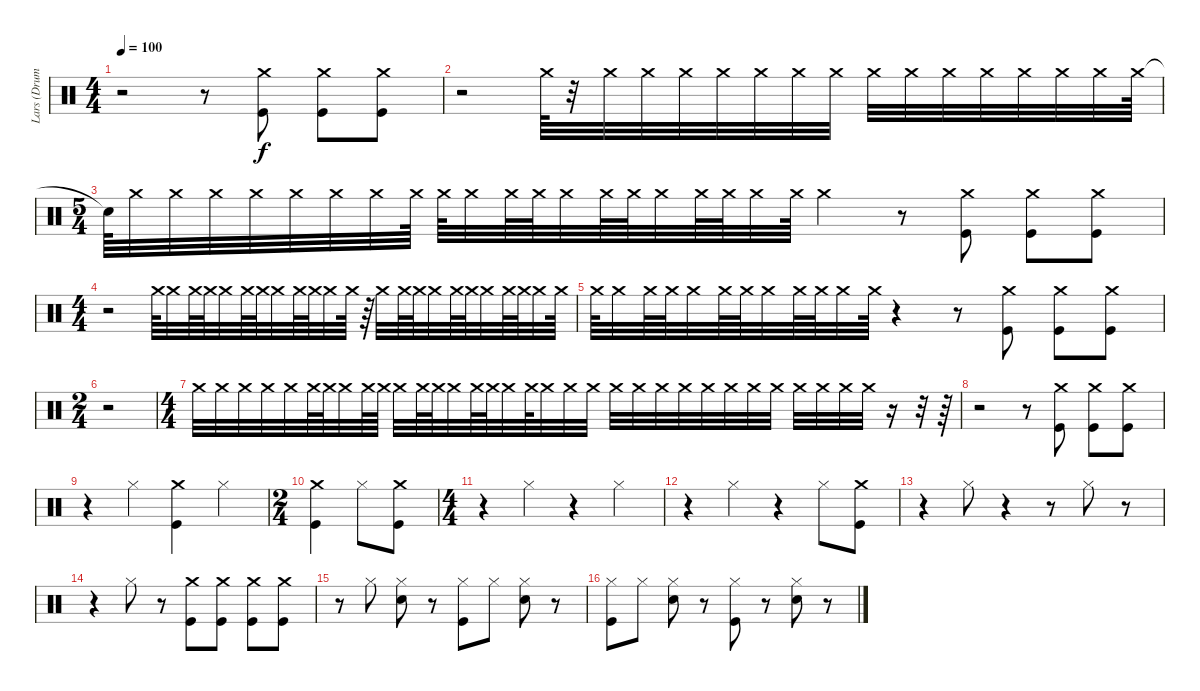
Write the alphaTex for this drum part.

\track ("Lars (Drums)" "Lars (Drum") {instrument percussion}
\staff {score}
\articulation defaults
\ts (4 4)
\tempo 100
\clef neutral
\ks c
r.2{dy f} r.8 ("Crash medium (hit)" "Kick (hit)").8 ("Crash medium (hit)" "Kick (hit)").8 ("Crash medium (hit)" "Kick (hit)").8 |
r.2 "Crash medium (hit)".64 r.32 "Crash medium (hit)".32 "Crash medium (hit)".32 "Crash medium (hit)".32 "Crash medium (hit)".32 "Crash medium (hit)".32 "Crash medium (hit)".32 "Crash medium (hit)".32 "Crash medium (hit)".32 "Crash medium (hit)".32 "Crash medium (hit)".32 "Crash medium (hit)".32 "Crash medium (hit)".32 "Crash medium (hit)".32 "Crash medium (hit)".32 "Crash medium (hit)".64 |
\ts (5 4)
"Snare (hit)"{t}.64 "Crash medium (hit)".32 "Crash medium (hit)".32 "Crash medium (hit)".32 "Crash medium (hit)".32 "Crash medium (hit)".32 "Crash medium (hit)".32 "Crash medium (hit)".32 "Crash medium (hit)".64 "Crash medium (hit)".64 "Crash medium (hit)".32 "Crash medium (hit)".64 "Crash medium (hit)".64 "Crash medium (hit)".32 "Crash medium (hit)".64 "Crash medium (hit)".64 "Crash medium (hit)".32 "Crash medium (hit)".64 "Crash medium (hit)".64 "Crash medium (hit)".32 "Crash medium (hit)".64 "Crash medium (hit)".4 r.8 ("Crash medium (hit)" "Kick (hit)").8 ("Crash medium (hit)" "Kick (hit)").8 ("Crash medium (hit)" "Kick (hit)").8 |
\ts (4 4)
r.2 "Crash medium (hit)".64 "Crash medium (hit)".32 "Crash medium (hit)".64 "Crash medium (hit)".64 "Crash medium (hit)".32 "Crash medium (hit)".64 "Crash medium (hit)".64 "Crash medium (hit)".32 "Crash medium (hit)".64 "Crash medium (hit)".64 "Crash medium (hit)".32 "Crash medium (hit)".64 r.64 "Crash medium (hit)".32 "Crash medium (hit)".64 "Crash medium (hit)".64 "Crash medium (hit)".32 "Crash medium (hit)".64 "Crash medium (hit)".64 "Crash medium (hit)".32 "Crash medium (hit)".64 "Crash medium (hit)".64 "Crash medium (hit)".32 "Crash medium (hit)".64 |
"Crash medium (hit)".64 "Crash medium (hit)".32 "Crash medium (hit)".64 "Crash medium (hit)".64 "Crash medium (hit)".32 "Crash medium (hit)".64 "Crash medium (hit)".64 "Crash medium (hit)".32 "Crash medium (hit)".64 "Crash medium (hit)".64 "Crash medium (hit)".32 "Crash medium (hit)".64 r.4 r.8 ("Crash medium (hit)" "Kick (hit)").8 ("Crash medium (hit)" "Kick (hit)").8 ("Crash medium (hit)" "Kick (hit)").8 |
\ts (2 4)
r.2 |
\ts (4 4)
"Crash medium (hit)".32 "Crash medium (hit)".32 "Crash medium (hit)".32 "Crash medium (hit)".32 "Crash medium (hit)".32 "Crash medium (hit)".64 "Crash medium (hit)".64 "Crash medium (hit)".32 "Crash medium (hit)".64 "Crash medium (hit)".64 "Crash medium (hit)".32 "Crash medium (hit)".64 "Crash medium (hit)".64 "Crash medium (hit)".32 "Crash medium (hit)".64 "Crash medium (hit)".64 "Crash medium (hit)".32 "Crash medium (hit)".64 "Crash medium (hit)".32 "Crash medium (hit)".32 "Crash medium (hit)".32 "Crash medium (hit)".32 "Crash medium (hit)".32 "Crash medium (hit)".32 "Crash medium (hit)".32 "Crash medium (hit)".32 "Crash medium (hit)".32 "Crash medium (hit)".32 "Crash medium (hit)".32 "Crash medium (hit)".32 "Crash medium (hit)".32 "Crash medium (hit)".32 "Crash medium (hit)".32 r.16 r.32 r.64 |
r.2 r.8 ("Crash medium (hit)" "Kick (hit)").8 ("Crash medium (hit)" "Kick (hit)").8 ("Kick (hit)" "Crash medium (hit)").8 |
r.4 "Hi-Hat (closed)".4 ("Crash medium (hit)" "Kick (hit)").4 "Hi-Hat (closed)".4 |
\ts (2 4)
("Crash medium (hit)" "Kick (hit)").4 "Hi-Hat (closed)".8 ("Crash medium (hit)" "Kick (hit)").8 |
\ts (4 4)
r.4 "Hi-Hat (closed)".4 r.4 "Hi-Hat (closed)".4 |
r.4 "Hi-Hat (closed)".4 r.4 "Hi-Hat (closed)".8 ("Crash medium (hit)" "Kick (hit)").8 |
r.4 "Hi-Hat (closed)".8 r.4 r.8 "Hi-Hat (closed)".8 r.8 |
r.4 "Hi-Hat (closed)".8 r.8 ("Crash medium (hit)" "Kick (hit)").8 ("Crash medium (hit)" "Kick (hit)").8 ("Crash medium (hit)" "Kick (hit)").8 ("Crash medium (hit)" "Kick (hit)").8 |
r.8 "Hi-Hat (closed)".8 ("Hi-Hat (closed)" "Snare (hit) 2").8 r.8 ("Kick (hit)" "Hi-Hat (closed)").8 "Hi-Hat (closed)".8 ("Snare (hit) 2" "Hi-Hat (closed)").8 r.8 |
("Kick (hit)" "Hi-Hat (closed)").8 "Hi-Hat (closed)".8 ("Snare (hit) 2" "Hi-Hat (closed)").8 r.8 ("Kick (hit)" "Hi-Hat (closed)").8 r.8 ("Snare (hit) 2" "Hi-Hat (closed)").8 r.8
